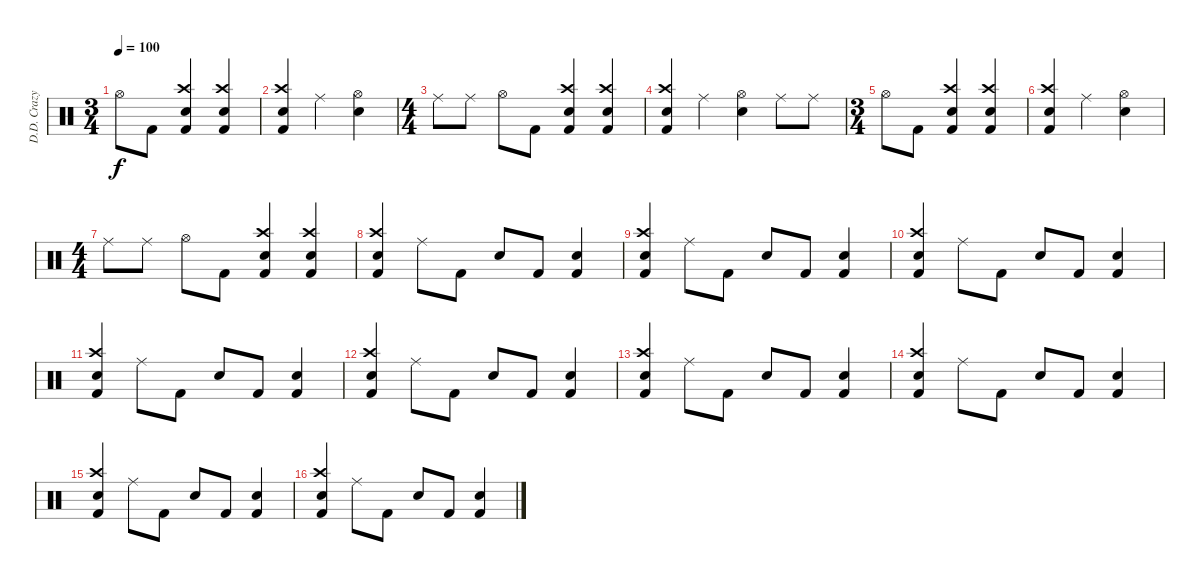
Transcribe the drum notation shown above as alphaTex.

\track ("D.D. Crazy " "D.D. Crazy") {instrument percussion}
\staff {score}
\articulation defaults
\ts (3 4)
\tempo 100
\clef neutral
\ks c "Hi-Hat (open)".8{dy f} "Kick (hit) 2".8
("Crash high (hit)" "Snare (hit) 2" "Kick (hit) 2").4 ("Crash high (hit)" "Snare (hit) 2" "Kick (hit) 2").4 |
("Crash high (hit)" "Snare (hit) 2" "Kick (hit) 2").4 "Ride (middle)".4 ("Hi-Hat (open)" "Snare (hit) 2").4 |
\ts (4 4)
"Ride (middle)".8 "Ride (middle)".8 "Hi-Hat (open)".8 "Kick (hit) 2".8 ("Crash high (hit)" "Snare (hit) 2" "Kick (hit) 2").4 ("Crash high (hit)" "Snare (hit) 2" "Kick (hit) 2").4 |
("Crash high (hit)" "Snare (hit) 2" "Kick (hit) 2").4 "Ride (middle)".4 ("Hi-Hat (open)" "Snare (hit) 2").4 "Ride (middle)".8 "Ride (middle)".8 |
\ts (3 4)
"Hi-Hat (open)".8 "Kick (hit) 2".8 ("Crash high (hit)" "Snare (hit) 2" "Kick (hit) 2").4 ("Crash high (hit)" "Snare (hit) 2" "Kick (hit) 2").4 |
("Crash high (hit)" "Snare (hit) 2" "Kick (hit) 2").4 "Ride (middle)".4 ("Hi-Hat (open)" "Snare (hit) 2").4 |
\ts (4 4)
"Ride (middle)".8 "Ride (middle)".8 "Hi-Hat (open)".8 "Kick (hit) 2".8 ("Crash high (hit)" "Snare (hit) 2" "Kick (hit) 2").4 ("Crash high (hit)" "Snare (hit) 2" "Kick (hit) 2").4 |
("Crash high (hit)" "Snare (hit) 2" "Kick (hit) 2").4 "Ride (middle)".8 "Kick (hit) 2".8 "Snare (hit) 2".8 "Kick (hit) 2".8 ("Snare (hit) 2" "Kick (hit) 2").4 |
("Crash high (hit)" "Snare (hit) 2" "Kick (hit) 2").4 "Ride (middle)".8 "Kick (hit) 2".8 "Snare (hit) 2".8 "Kick (hit) 2".8 ("Snare (hit) 2" "Kick (hit) 2").4 |
("Crash high (hit)" "Snare (hit) 2" "Kick (hit) 2").4 "Ride (middle)".8 "Kick (hit) 2".8 "Snare (hit) 2".8 "Kick (hit) 2".8 ("Snare (hit) 2" "Kick (hit) 2").4 |
("Crash high (hit)" "Snare (hit) 2" "Kick (hit) 2").4 "Ride (middle)".8 "Kick (hit) 2".8 "Snare (hit) 2".8 "Kick (hit) 2".8 ("Snare (hit) 2" "Kick (hit) 2").4 |
("Crash high (hit)" "Snare (hit) 2" "Kick (hit) 2").4 "Ride (middle)".8 "Kick (hit) 2".8 "Snare (hit) 2".8 "Kick (hit) 2".8 ("Snare (hit) 2" "Kick (hit) 2").4 |
("Crash high (hit)" "Snare (hit) 2" "Kick (hit) 2").4 "Ride (middle)".8 "Kick (hit) 2".8 "Snare (hit) 2".8 "Kick (hit) 2".8 ("Snare (hit) 2" "Kick (hit) 2").4 |
("Crash high (hit)" "Snare (hit) 2" "Kick (hit) 2").4 "Ride (middle)".8 "Kick (hit) 2".8 "Snare (hit) 2".8 "Kick (hit) 2".8 ("Snare (hit) 2" "Kick (hit) 2").4 |
("Crash high (hit)" "Snare (hit) 2" "Kick (hit) 2").4 "Ride (middle)".8 "Kick (hit) 2".8 "Snare (hit) 2".8 "Kick (hit) 2".8 ("Snare (hit) 2" "Kick (hit) 2").4 |
("Crash high (hit)" "Snare (hit) 2" "Kick (hit) 2").4 "Ride (middle)".8 "Kick (hit) 2".8 "Snare (hit) 2".8 "Kick (hit) 2".8 ("Snare (hit) 2" "Kick (hit) 2").4
